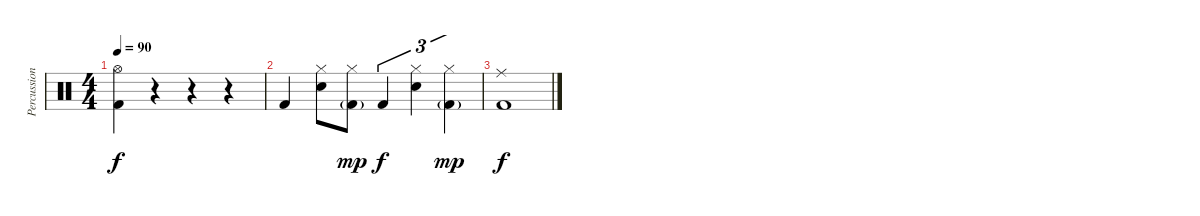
\track ("Percussion" "Percussion") {instrument percussion}
\staff {score}
\articulation defaults
\ts (4 4)
\tempo 90
\clef neutral
\ks c
("Hi-Hat (open)" "Kick (hit) 2").4{dy f} r.4 r.4 r.4 |
"Kick (hit) 2".4 ("Hi-Hat (closed)" "Snare (hit) 2").8 ("Hi-Hat (closed)" "Kick (hit) 2"{g}).8{dy mp} "Kick (hit) 2".4{tu (3 2) dy f} ("Hi-Hat (closed)" "Snare (hit) 2").4{tu (3 2)} ("Hi-Hat (closed)" "Kick (hit) 2"{g}).4{tu (3 2) dy mp} |
("Ride (middle)" "Kick (hit) 2").1{dy f}
